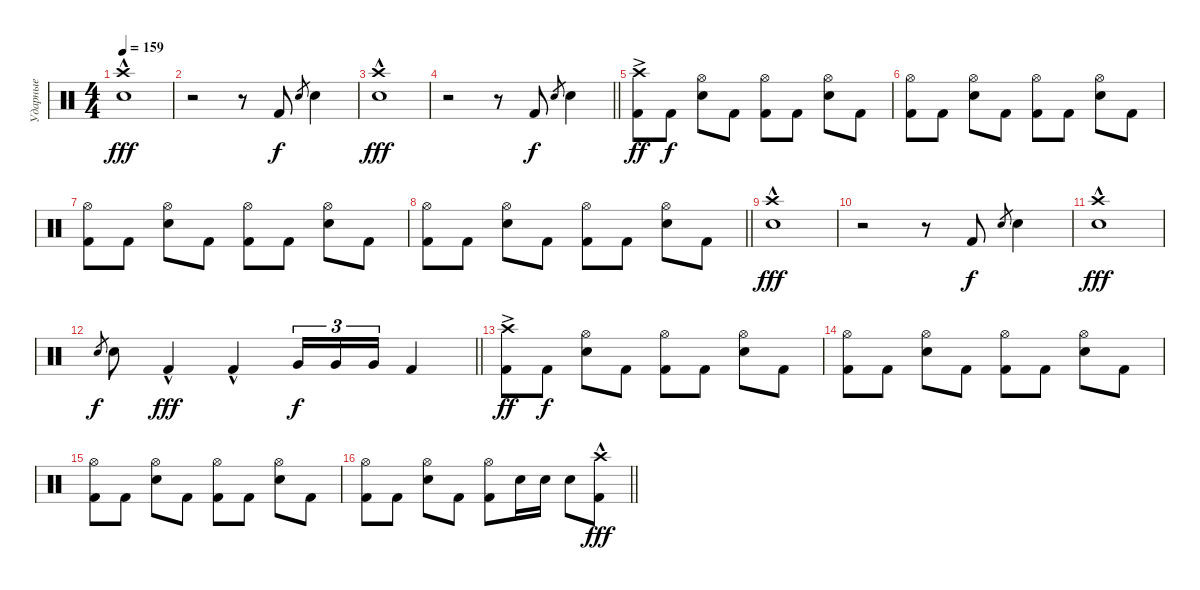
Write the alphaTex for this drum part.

\track ("Ударные" "Ударные") {instrument percussion}
\staff {score}
\articulation defaults
\ts (4 4)
\tempo 159
\clef neutral
\ks c
("Snare (hit) 2" "Crash high (hit)"{hac}).1{dy fff} |
r.2 r.8 "Kick (hit) 2".8{dy f} "Snare (hit) 2".8{gr} "Snare (hit) 2".4 |
("Snare (hit) 2" "Crash high (hit)"{hac}).1{dy fff} |
\barLineRight lightlight
r.2 r.8 "Kick (hit) 2".8{dy f} "Snare (hit) 2".8{gr} "Snare (hit) 2".4 |
("Kick (hit) 2" "Crash high (hit)"{ac}).8{dy ff} "Kick (hit) 2".8{dy f} ("Snare (hit) 2" "Hi-Hat (open)").8 "Kick (hit) 2".8 ("Kick (hit) 2" "Hi-Hat (open)").8 "Kick (hit) 2".8 ("Snare (hit) 2" "Hi-Hat (open)").8 "Kick (hit) 2".8 |
("Kick (hit) 2" "Hi-Hat (open)").8 "Kick (hit) 2".8 ("Snare (hit) 2" "Hi-Hat (open)").8 "Kick (hit) 2".8 ("Kick (hit) 2" "Hi-Hat (open)").8 "Kick (hit) 2".8 ("Snare (hit) 2" "Hi-Hat (open)").8 "Kick (hit) 2".8 |
("Kick (hit) 2" "Hi-Hat (open)").8 "Kick (hit) 2".8 ("Snare (hit) 2" "Hi-Hat (open)").8 "Kick (hit) 2".8 ("Kick (hit) 2" "Hi-Hat (open)").8 "Kick (hit) 2".8 ("Snare (hit) 2" "Hi-Hat (open)").8 "Kick (hit) 2".8 |
\barLineRight lightlight
("Kick (hit) 2" "Hi-Hat (open)").8 "Kick (hit) 2".8 ("Snare (hit) 2" "Hi-Hat (open)").8 "Kick (hit) 2".8 ("Kick (hit) 2" "Hi-Hat (open)").8 "Kick (hit) 2".8 ("Snare (hit) 2" "Hi-Hat (open)").8 "Kick (hit) 2".8 |
("Snare (hit) 2" "Crash high (hit)"{hac}).1{dy fff} |
r.2 r.8 "Kick (hit) 2".8{dy f} "Snare (hit) 2".8{gr} "Snare (hit) 2".4 |
("Snare (hit) 2" "Crash high (hit)"{hac}).1{dy fff} |
\barLineRight lightlight "Snare (hit) 2".8{gr dy f} "Snare (hit) 2".8 "Kick (hit) 2"{hac}.4{dy fff} "Kick (hit) 2"{hac}.4 "Very Low Tom (hit)".16{tu (3 2) dy f} "Very Low Tom (hit)".16{tu (3 2)} "Very Low Tom (hit)".16{tu (3 2)} "Kick (hit) 2".4
|
("Kick (hit) 2" "Crash high (hit)"{ac}).8{dy ff} "Kick (hit) 2".8{dy f} ("Snare (hit) 2" "Hi-Hat (open)").8 "Kick (hit) 2".8 ("Kick (hit) 2" "Hi-Hat (open)").8 "Kick (hit) 2".8 ("Snare (hit) 2" "Hi-Hat (open)").8 "Kick (hit) 2".8 |
("Kick (hit) 2" "Hi-Hat (open)").8 "Kick (hit) 2".8 ("Snare (hit) 2" "Hi-Hat (open)").8 "Kick (hit) 2".8 ("Kick (hit) 2" "Hi-Hat (open)").8 "Kick (hit) 2".8 ("Snare (hit) 2" "Hi-Hat (open)").8 "Kick (hit) 2".8 |
("Kick (hit) 2" "Hi-Hat (open)").8 "Kick (hit) 2".8 ("Snare (hit) 2" "Hi-Hat (open)").8 "Kick (hit) 2".8 ("Kick (hit) 2" "Hi-Hat (open)").8 "Kick (hit) 2".8 ("Snare (hit) 2" "Hi-Hat (open)").8 "Kick (hit) 2".8 |
\barLineRight lightlight
("Kick (hit) 2" "Hi-Hat (open)").8 "Kick (hit) 2".8 ("Snare (hit) 2" "Hi-Hat (open)").8 "Kick (hit) 2".8 ("Kick (hit) 2" "Hi-Hat (open)").8 "Snare (hit) 2".16 "Snare (hit) 2".16 "Snare (hit) 2".8 ("Kick (hit) 2" "Crash high (hit)"{hac}).8{dy fff}
